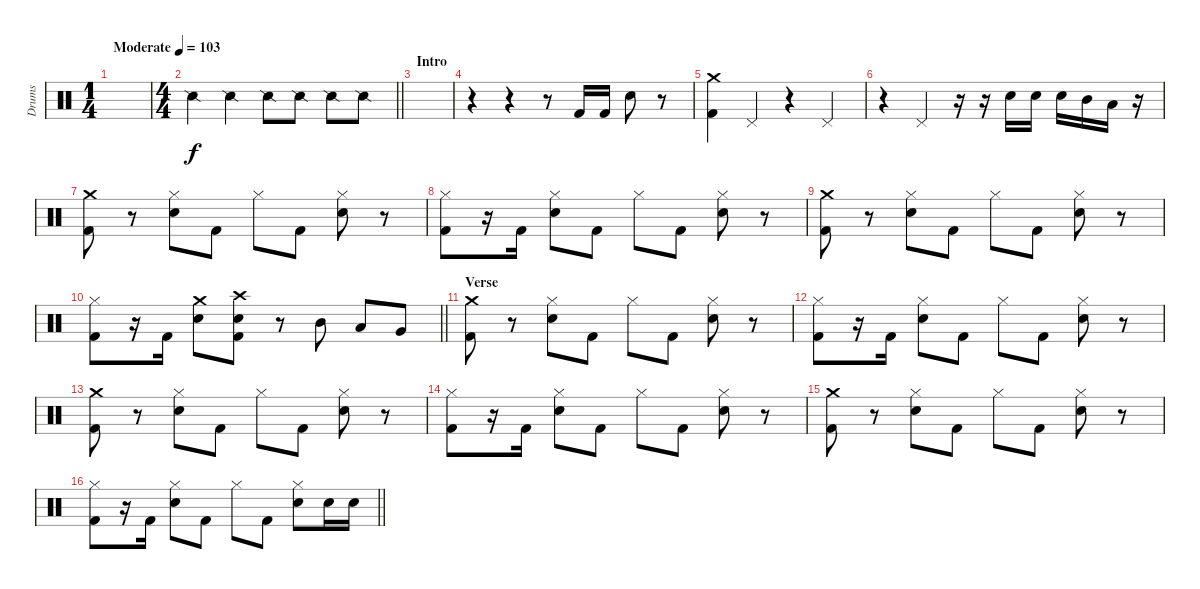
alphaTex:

\track ("Drums" "Drums") {instrument percussion}
\staff {score}
\articulation defaults
\ts (1 4)
\tempo (103 "Moderate")
\clef neutral
\ks c
|
\ts (4 4)
\barLineRight lightlight "Snare (side stick) 2".4 "Snare (side stick) 2".4 "Snare (side stick) 2".8 "Snare (side stick) 2".8 "Snare (side stick) 2".8 "Snare (side stick) 2".8
|
\section ("" "Intro")
|
r.4 r.4 r.8 "Kick (hit) 2".16 "Kick (hit) 2".16 "Snare (hit) 2".8 r.8 |
("Crash medium (hit)" "Kick (hit) 2").4 "Pedal Hi-Hat (hit)".4 r.4 "Pedal Hi-Hat (hit)".4 |
r.4 "Pedal Hi-Hat (hit)".4 r.16 r.16 "Snare (hit) 2".16 "Snare (hit) 2".16 "Snare (hit) 2".16 "Mid Tom (hit)".16 "Low Tom (hit)".16 r.16 |
("Crash medium (hit)" "Kick (hit) 2").8 r.8 ("Hi-Hat (closed)" "Snare (hit) 2").8 "Kick (hit) 2".8 "Hi-Hat (closed)".8 "Kick (hit) 2".8 ("Hi-Hat (closed)" "Snare (hit) 2").8 r.8 |
("Hi-Hat (closed)" "Kick (hit) 2").8 r.16 "Kick (hit) 2".16 ("Hi-Hat (closed)" "Snare (hit) 2").8 "Kick (hit) 2".8 "Hi-Hat (closed)".8 "Kick (hit) 2".8 ("Hi-Hat (closed)" "Snare (hit) 2").8 r.8 |
("Crash medium (hit)" "Kick (hit) 2").8 r.8 ("Hi-Hat (closed)" "Snare (hit) 2").8 "Kick (hit) 2".8 "Hi-Hat (closed)".8 "Kick (hit) 2".8 ("Hi-Hat (closed)" "Snare (hit) 2").8 r.8 |
\barLineRight lightlight
("Hi-Hat (closed)" "Kick (hit) 2").8 r.16 "Kick (hit) 2".16 ("Crash medium (hit)" "Snare (hit) 2").8 ("Crash high (hit)" "Snare (hit) 2" "Kick (hit) 2").8 r.8 "Mid Tom (hit)".8 "Low Tom (hit)".8 "Very Low Tom (hit)".8 |
\section ("" "Verse")
("Crash medium (hit)" "Kick (hit) 2").8 r.8 ("Hi-Hat (closed)" "Snare (hit) 2").8 "Kick (hit) 2".8 "Hi-Hat (closed)".8 "Kick (hit) 2".8 ("Hi-Hat (closed)" "Snare (hit) 2").8 r.8 |
("Hi-Hat (closed)" "Kick (hit) 2").8 r.16 "Kick (hit) 2".16 ("Hi-Hat (closed)" "Snare (hit) 2").8 "Kick (hit) 2".8 "Hi-Hat (closed)".8 "Kick (hit) 2".8 ("Hi-Hat (closed)" "Snare (hit) 2").8 r.8 |
("Crash medium (hit)" "Kick (hit) 2").8 r.8 ("Hi-Hat (closed)" "Snare (hit) 2").8 "Kick (hit) 2".8 "Hi-Hat (closed)".8 "Kick (hit) 2".8 ("Hi-Hat (closed)" "Snare (hit) 2").8 r.8 |
("Hi-Hat (closed)" "Kick (hit) 2").8 r.16 "Kick (hit) 2".16 ("Hi-Hat (closed)" "Snare (hit) 2").8 "Kick (hit) 2".8 "Hi-Hat (closed)".8 "Kick (hit) 2".8 ("Hi-Hat (closed)" "Snare (hit) 2").8 r.8 |
("Crash medium (hit)" "Kick (hit) 2").8 r.8 ("Hi-Hat (closed)" "Snare (hit) 2").8 "Kick (hit) 2".8 "Hi-Hat (closed)".8 "Kick (hit) 2".8 ("Hi-Hat (closed)" "Snare (hit) 2").8 r.8 |
\barLineRight lightlight
("Hi-Hat (closed)" "Kick (hit) 2").8 r.16 "Kick (hit) 2".16 ("Hi-Hat (closed)" "Snare (hit) 2").8 "Kick (hit) 2".8 "Hi-Hat (closed)".8 "Kick (hit) 2".8 ("Hi-Hat (closed)" "Snare (hit) 2").8 "Snare (hit) 2".16 "Snare (hit) 2".16
